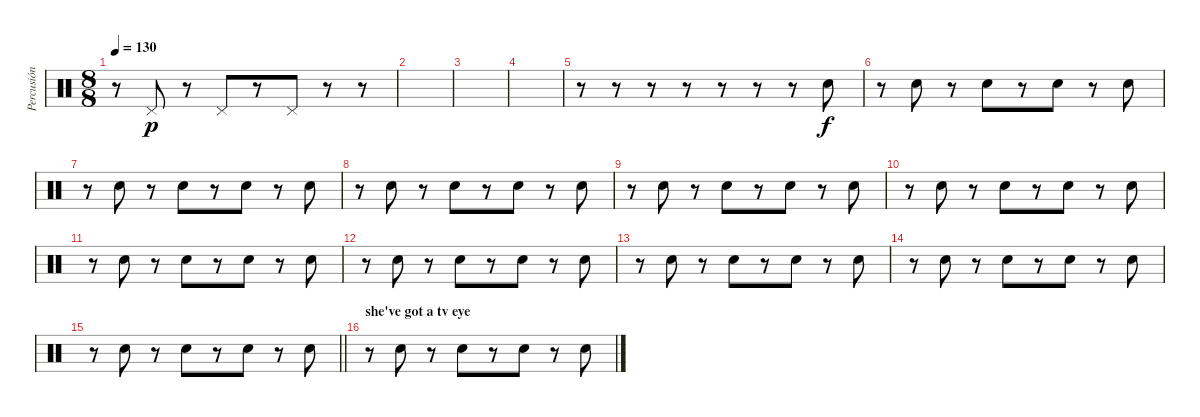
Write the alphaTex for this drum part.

\track ("Percusión" "Percusión") {instrument percussion}
\staff {score}
\articulation defaults
\ts (8 8)
\tempo 130
\clef neutral
\ks c
r.8{dy p} "Pedal Hi-Hat (hit)".8 r.8 "Pedal Hi-Hat (hit)".8 r.8 "Pedal Hi-Hat (hit)".8 r.8 r.8 |
|
|
|
r.8 r.8 r.8 r.8 r.8 r.8 r.8 "Snare (hit) 2".8{dy f} |
r.8 "Snare (hit) 2".8 r.8 "Snare (hit) 2".8 r.8 "Snare (hit) 2".8 r.8 "Snare (hit) 2".8 |
r.8 "Snare (hit) 2".8 r.8 "Snare (hit) 2".8 r.8 "Snare (hit) 2".8 r.8 "Snare (hit) 2".8 |
r.8 "Snare (hit) 2".8 r.8 "Snare (hit) 2".8 r.8 "Snare (hit) 2".8 r.8 "Snare (hit) 2".8 |
r.8 "Snare (hit) 2".8 r.8 "Snare (hit) 2".8 r.8 "Snare (hit) 2".8 r.8 "Snare (hit) 2".8 |
r.8 "Snare (hit) 2".8 r.8 "Snare (hit) 2".8 r.8 "Snare (hit) 2".8 r.8 "Snare (hit) 2".8 |
r.8 "Snare (hit) 2".8 r.8 "Snare (hit) 2".8 r.8 "Snare (hit) 2".8 r.8 "Snare (hit) 2".8 |
r.8 "Snare (hit) 2".8 r.8 "Snare (hit) 2".8 r.8 "Snare (hit) 2".8 r.8 "Snare (hit) 2".8 |
r.8 "Snare (hit) 2".8 r.8 "Snare (hit) 2".8 r.8 "Snare (hit) 2".8 r.8 "Snare (hit) 2".8 |
r.8 "Snare (hit) 2".8 r.8 "Snare (hit) 2".8 r.8 "Snare (hit) 2".8 r.8 "Snare (hit) 2".8 |
\barLineRight lightlight
r.8 "Snare (hit) 2".8 r.8 "Snare (hit) 2".8 r.8 "Snare (hit) 2".8 r.8 "Snare (hit) 2".8 |
\section ("" "she've got a tv eye")
r.8 "Snare (hit) 2".8 r.8 "Snare (hit) 2".8 r.8 "Snare (hit) 2".8 r.8 "Snare (hit) 2".8
